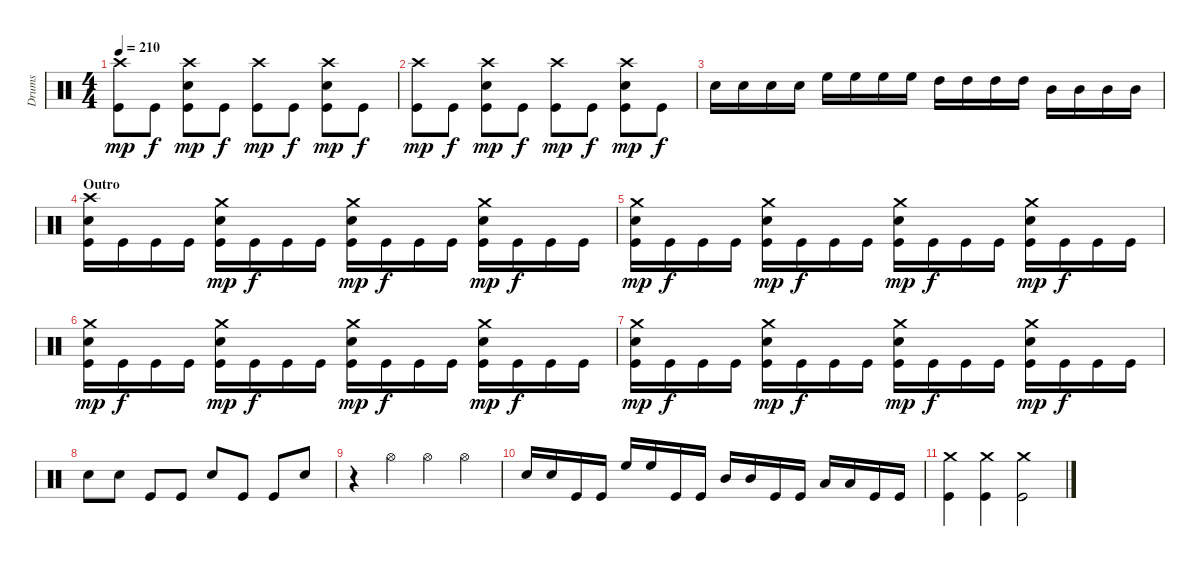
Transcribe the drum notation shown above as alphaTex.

\track ("Drums" "Drums") {instrument percussion}
\staff {score}
\articulation defaults
\ts (4 4)
\tempo 210
\clef neutral
\ks c
("Crash high (hit)" "Kick (hit)").8{dy mp} "Kick (hit)".8{dy f} ("Crash high (hit)" "Electric Snare (hit)" "Kick (hit)").8{dy mp} "Kick (hit)".8{dy f} ("Crash high (hit)" "Kick (hit)").8{dy mp} "Kick (hit)".8{dy f} ("Crash high (hit)" "Electric Snare (hit)" "Kick (hit)").8{dy mp} "Kick (hit)".8{dy f} |
("Crash high (hit)" "Kick (hit)").8{dy mp} "Kick (hit)".8{dy f} ("Crash high (hit)" "Electric Snare (hit)" "Kick (hit)").8{dy mp} "Kick (hit)".8{dy f} ("Crash high (hit)" "Kick (hit)").8{dy mp} "Kick (hit)".8{dy f} ("Crash high (hit)" "Electric Snare (hit)" "Kick (hit)").8{dy mp} "Kick (hit)".8{dy f} |
"Electric Snare (hit)".16 "Electric Snare (hit)".16 "Electric Snare (hit)".16 "Electric Snare (hit)".16 "High Floor Tom (hit)".16 "High Floor Tom (hit)".16 "High Floor Tom (hit)".16 "High Floor Tom (hit)".16 "High Tom (hit)".16 "High Tom (hit)".16 "High Tom (hit)".16 "High Tom (hit)".16 "Mid Tom (hit)".16 "Mid Tom (hit)".16 "Mid Tom (hit)".16 "Mid Tom (hit)".16 |
\section ("" "Outro")
("Crash high (hit)" "Electric Snare (hit)" "Kick (hit)").16 "Kick (hit)".16 "Kick (hit)".16 "Kick (hit)".16 ("Crash medium (hit)" "Electric Snare (hit)" "Kick (hit)").16{dy mp} "Kick (hit)".16{dy f} "Kick (hit)".16 "Kick (hit)".16 ("Crash medium (hit)" "Electric Snare (hit)" "Kick (hit)").16{dy mp} "Kick (hit)".16{dy f} "Kick (hit)".16 "Kick (hit)".16 ("Crash medium (hit)" "Electric Snare (hit)" "Kick (hit)").16{dy mp} "Kick (hit)".16{dy f} "Kick (hit)".16 "Kick (hit)".16 |
("Crash medium (hit)" "Electric Snare (hit)" "Kick (hit)").16{dy mp} "Kick (hit)".16{dy f} "Kick (hit)".16 "Kick (hit)".16 ("Crash medium (hit)" "Electric Snare (hit)" "Kick (hit)").16{dy mp} "Kick (hit)".16{dy f} "Kick (hit)".16 "Kick (hit)".16 ("Crash medium (hit)" "Electric Snare (hit)" "Kick (hit)").16{dy mp} "Kick (hit)".16{dy f} "Kick (hit)".16 "Kick (hit)".16 ("Crash medium (hit)" "Electric Snare (hit)" "Kick (hit)").16{dy mp} "Kick (hit)".16{dy f} "Kick (hit)".16 "Kick (hit)".16 |
("Crash medium (hit)" "Electric Snare (hit)" "Kick (hit)").16{dy mp} "Kick (hit)".16{dy f} "Kick (hit)".16 "Kick (hit)".16 ("Crash medium (hit)" "Electric Snare (hit)" "Kick (hit)").16{dy mp} "Kick (hit)".16{dy f} "Kick (hit)".16 "Kick (hit)".16 ("Crash medium (hit)" "Electric Snare (hit)" "Kick (hit)").16{dy mp} "Kick (hit)".16{dy f} "Kick (hit)".16 "Kick (hit)".16 ("Crash medium (hit)" "Electric Snare (hit)" "Kick (hit)").16{dy mp} "Kick (hit)".16{dy f} "Kick (hit)".16 "Kick (hit)".16 |
("Crash medium (hit)" "Electric Snare (hit)" "Kick (hit)").16{dy mp} "Kick (hit)".16{dy f} "Kick (hit)".16 "Kick (hit)".16 ("Crash medium (hit)" "Electric Snare (hit)" "Kick (hit)").16{dy mp} "Kick (hit)".16{dy f} "Kick (hit)".16 "Kick (hit)".16 ("Crash medium (hit)" "Electric Snare (hit)" "Kick (hit)").16{dy mp} "Kick (hit)".16{dy f} "Kick (hit)".16 "Kick (hit)".16 ("Crash medium (hit)" "Electric Snare (hit)" "Kick (hit)").16{dy mp} "Kick (hit)".16{dy f} "Kick (hit)".16 "Kick (hit)".16 |
"Electric Snare (hit)".8 "Electric Snare (hit)".8 "Kick (hit)".8 "Kick (hit)".8 "Electric Snare (hit)".8 "Kick (hit)".8 "Kick (hit)".8 "Electric Snare (hit)".8 |
r.4 "Hi-Hat (open)".4 "Hi-Hat (open)".4 "Hi-Hat (open)".4 |
"Electric Snare (hit)".16 "Electric Snare (hit)".16 "Kick (hit)".16 "Kick (hit)".16 "High Floor Tom (hit)".16 "High Floor Tom (hit)".16 "Kick (hit)".16 "Kick (hit)".16 "Mid Tom (hit)".16 "Mid Tom (hit)".16 "Kick (hit)".16 "Kick (hit)".16 "Low Tom (hit)".16 "Low Tom (hit)".16 "Kick (hit)".16 "Kick (hit)".16 |
("Crash medium (hit)" "Kick (hit)").4 ("Crash medium (hit)" "Kick (hit)").4 ("Crash medium (hit)" "Kick (hit)").2
